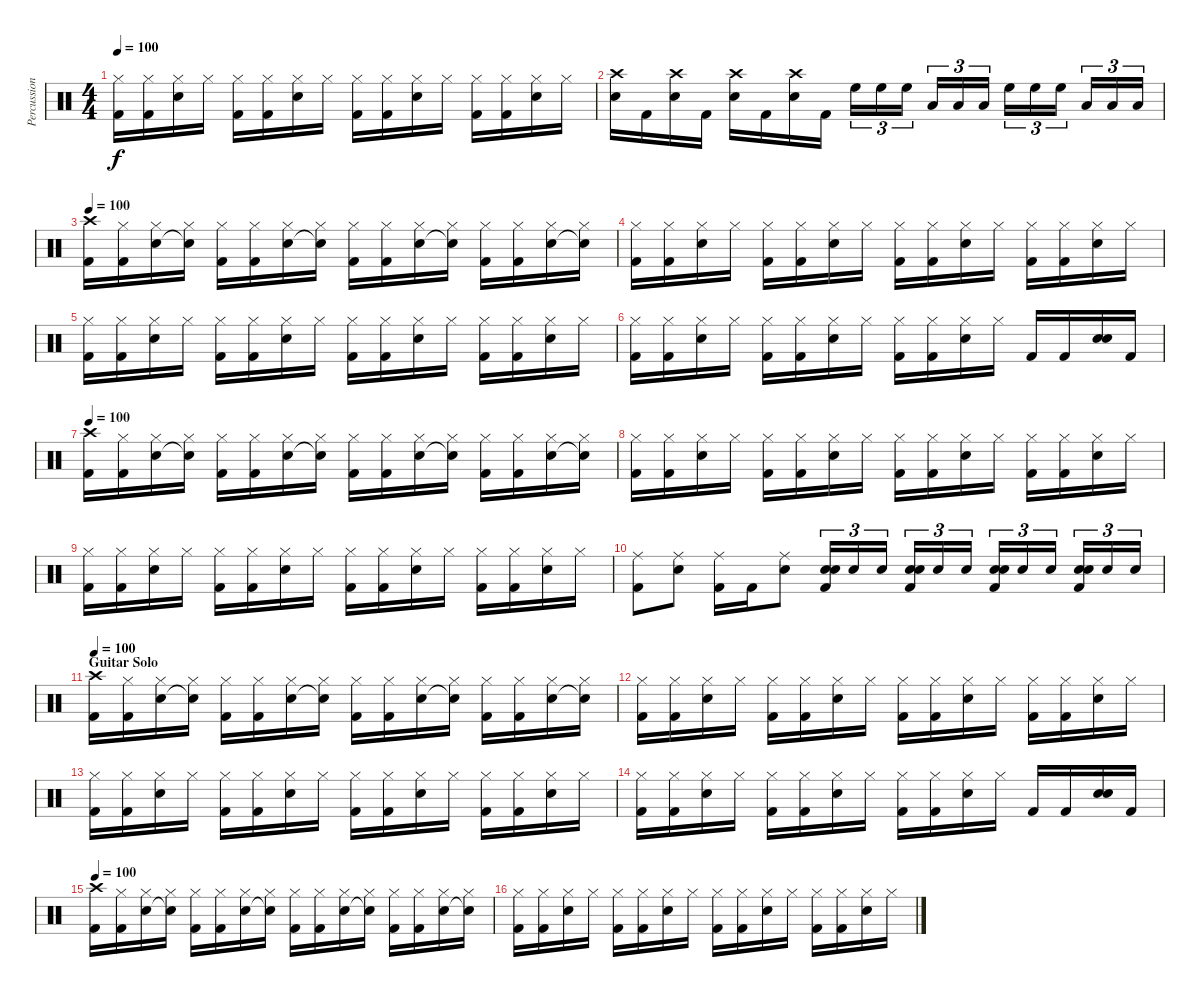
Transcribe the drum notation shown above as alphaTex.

\track ("Percussion" "Percussion") {instrument percussion}
\staff {score}
\articulation defaults
\ts (4 4)
\tempo 100
\clef neutral
\ks c
("Hi-Hat (closed)" "Kick (hit) 2").16{dy f} ("Hi-Hat (closed)" "Kick (hit) 2").16 ("Hi-Hat (closed)" "Snare (hit) 2").16 "Hi-Hat (closed)".16 ("Hi-Hat (closed)" "Kick (hit) 2").16 ("Hi-Hat (closed)" "Kick (hit) 2").16 ("Hi-Hat (closed)" "Snare (hit) 2").16 "Hi-Hat (closed)".16 ("Hi-Hat (closed)" "Kick (hit) 2").16 ("Hi-Hat (closed)" "Kick (hit) 2").16 ("Hi-Hat (closed)" "Snare (hit) 2").16 "Hi-Hat (closed)".16 ("Hi-Hat (closed)" "Kick (hit) 2").16 ("Hi-Hat (closed)" "Kick (hit) 2").16 ("Hi-Hat (closed)" "Snare (hit) 2").16 "Hi-Hat (closed)".16 |
("Crash high (hit)" "Snare (hit) 2").16 "Kick (hit) 2".16 ("Crash high (hit)" "Snare (hit) 2").16 "Kick (hit) 2".16 ("Crash high (hit)" "Snare (hit) 2").16 "Kick (hit) 2".16 ("Crash high (hit)" "Snare (hit) 2").16 "Kick (hit) 2".16 "High Floor Tom (hit)".16{tu (3 2)} "High Floor Tom (hit)".16{tu (3 2)} "High Floor Tom (hit)".16{tu (3 2)} "Low Floor Tom (hit)".16{tu (3 2)} "Low Floor Tom (hit)".16{tu (3 2)} "Low Floor Tom (hit)".16{tu (3 2)} "High Floor Tom (hit)".16{tu (3 2)} "High Floor Tom (hit)".16{tu (3 2)} "High Floor Tom (hit)".16{tu (3 2)} "Low Floor Tom (hit)".16{tu (3 2)} "Low Floor Tom (hit)".16{tu (3 2)} "Low Floor Tom (hit)".16{tu (3 2)} |
\tempo 100
("Crash high (hit)" "Kick (hit) 2").16 ("Hi-Hat (closed)" "Kick (hit) 2").16 ("Hi-Hat (closed)" "Snare (hit) 2").16 ("Hi-Hat (closed)" "Snare (hit)"{t}).16 ("Hi-Hat (closed)" "Kick (hit) 2").16 ("Hi-Hat (closed)" "Kick (hit) 2").16 ("Hi-Hat (closed)" "Snare (hit) 2").16 ("Hi-Hat (closed)" "Snare (hit)"{t}).16 ("Hi-Hat (closed)" "Kick (hit) 2").16 ("Hi-Hat (closed)" "Kick (hit) 2").16 ("Hi-Hat (closed)" "Snare (hit) 2").16 ("Hi-Hat (closed)" "Snare (hit)"{t}).16 ("Hi-Hat (closed)" "Kick (hit) 2").16 ("Hi-Hat (closed)" "Kick (hit) 2").16 ("Hi-Hat (closed)" "Snare (hit) 2").16 ("Hi-Hat (closed)" "Snare (hit)"{t}).16 |
("Hi-Hat (closed)" "Kick (hit) 2").16 ("Hi-Hat (closed)" "Kick (hit) 2").16 ("Hi-Hat (closed)" "Snare (hit) 2").16 "Hi-Hat (closed)".16 ("Hi-Hat (closed)" "Kick (hit) 2").16 ("Hi-Hat (closed)" "Kick (hit) 2").16 ("Hi-Hat (closed)" "Snare (hit) 2").16 "Hi-Hat (closed)".16 ("Hi-Hat (closed)" "Kick (hit) 2").16 ("Hi-Hat (closed)" "Kick (hit) 2").16 ("Hi-Hat (closed)" "Snare (hit) 2").16 "Hi-Hat (closed)".16 ("Hi-Hat (closed)" "Kick (hit) 2").16 ("Hi-Hat (closed)" "Kick (hit) 2").16 ("Hi-Hat (closed)" "Snare (hit) 2").16 "Hi-Hat (closed)".16 |
("Hi-Hat (closed)" "Kick (hit) 2").16 ("Hi-Hat (closed)" "Kick (hit) 2").16 ("Hi-Hat (closed)" "Snare (hit) 2").16 "Hi-Hat (closed)".16 ("Hi-Hat (closed)" "Kick (hit) 2").16 ("Hi-Hat (closed)" "Kick (hit) 2").16 ("Hi-Hat (closed)" "Snare (hit) 2").16 "Hi-Hat (closed)".16 ("Hi-Hat (closed)" "Kick (hit) 2").16 ("Hi-Hat (closed)" "Kick (hit) 2").16 ("Hi-Hat (closed)" "Snare (hit) 2").16 "Hi-Hat (closed)".16 ("Hi-Hat (closed)" "Kick (hit) 2").16 ("Hi-Hat (closed)" "Kick (hit) 2").16 ("Hi-Hat (closed)" "Snare (hit) 2").16 "Hi-Hat (closed)".16 |
("Hi-Hat (closed)" "Kick (hit) 2").16 ("Hi-Hat (closed)" "Kick (hit) 2").16 ("Hi-Hat (closed)" "Snare (hit) 2").16 "Hi-Hat (closed)".16 ("Hi-Hat (closed)" "Kick (hit) 2").16 ("Hi-Hat (closed)" "Kick (hit) 2").16 ("Hi-Hat (closed)" "Snare (hit) 2").16 "Hi-Hat (closed)".16 ("Hi-Hat (closed)" "Kick (hit) 2").16 ("Hi-Hat (closed)" "Kick (hit) 2").16 ("Hi-Hat (closed)" "Snare (hit) 2").16 "Hi-Hat (closed)".16 "Kick (hit) 2".16 "Kick (hit) 2".16 ("Snare (hit) 2" "Snare (hit) 2").16 "Kick (hit) 2".16 |
\tempo 100
("Crash high (hit)" "Kick (hit) 2").16 ("Hi-Hat (closed)" "Kick (hit) 2").16 ("Hi-Hat (closed)" "Snare (hit) 2").16 ("Hi-Hat (closed)" "Snare (hit)"{t}).16 ("Hi-Hat (closed)" "Kick (hit) 2").16 ("Hi-Hat (closed)" "Kick (hit) 2").16 ("Hi-Hat (closed)" "Snare (hit) 2").16 ("Hi-Hat (closed)" "Snare (hit)"{t}).16 ("Hi-Hat (closed)" "Kick (hit) 2").16 ("Hi-Hat (closed)" "Kick (hit) 2").16 ("Hi-Hat (closed)" "Snare (hit) 2").16 ("Hi-Hat (closed)" "Snare (hit)"{t}).16 ("Hi-Hat (closed)" "Kick (hit) 2").16 ("Hi-Hat (closed)" "Kick (hit) 2").16 ("Hi-Hat (closed)" "Snare (hit) 2").16 ("Hi-Hat (closed)" "Snare (hit)"{t}).16 |
("Hi-Hat (closed)" "Kick (hit) 2").16 ("Hi-Hat (closed)" "Kick (hit) 2").16 ("Hi-Hat (closed)" "Snare (hit) 2").16 "Hi-Hat (closed)".16 ("Hi-Hat (closed)" "Kick (hit) 2").16 ("Hi-Hat (closed)" "Kick (hit) 2").16 ("Hi-Hat (closed)" "Snare (hit) 2").16 "Hi-Hat (closed)".16 ("Hi-Hat (closed)" "Kick (hit) 2").16 ("Hi-Hat (closed)" "Kick (hit) 2").16 ("Hi-Hat (closed)" "Snare (hit) 2").16 "Hi-Hat (closed)".16 ("Hi-Hat (closed)" "Kick (hit) 2").16 ("Hi-Hat (closed)" "Kick (hit) 2").16 ("Hi-Hat (closed)" "Snare (hit) 2").16 "Hi-Hat (closed)".16 |
("Hi-Hat (closed)" "Kick (hit) 2").16 ("Hi-Hat (closed)" "Kick (hit) 2").16 ("Hi-Hat (closed)" "Snare (hit) 2").16 "Hi-Hat (closed)".16 ("Hi-Hat (closed)" "Kick (hit) 2").16 ("Hi-Hat (closed)" "Kick (hit) 2").16 ("Hi-Hat (closed)" "Snare (hit) 2").16 "Hi-Hat (closed)".16 ("Hi-Hat (closed)" "Kick (hit) 2").16 ("Hi-Hat (closed)" "Kick (hit) 2").16 ("Hi-Hat (closed)" "Snare (hit) 2").16 "Hi-Hat (closed)".16 ("Hi-Hat (closed)" "Kick (hit) 2").16 ("Hi-Hat (closed)" "Kick (hit) 2").16 ("Hi-Hat (closed)" "Snare (hit) 2").16 "Hi-Hat (closed)".16 |
("Ride (middle)" "Kick (hit) 2").8 ("Ride (middle)" "Snare (hit) 2").8 ("Ride (middle)" "Kick (hit) 2").16 "Kick (hit) 2".16 ("Ride (middle)" "Snare (hit) 2").8 ("Snare (hit) 2" "Snare (hit) 2" "Kick (hit) 2").16{tu (3 2)} "Snare (hit) 2".16{tu (3 2)} "Snare (hit) 2".16{tu (3 2)} ("Snare (hit) 2" "Snare (hit) 2" "Kick (hit) 2").16{tu (3 2)} "Snare (hit) 2".16{tu (3 2)} "Snare (hit) 2".16{tu (3 2)} ("Snare (hit) 2" "Snare (hit) 2" "Kick (hit) 2").16{tu (3 2)} "Snare (hit) 2".16{tu (3 2)} "Snare (hit) 2".16{tu (3 2)} ("Snare (hit) 2" "Snare (hit) 2" "Kick (hit) 2").16{tu (3 2)} "Snare (hit) 2".16{tu (3 2)} "Snare (hit) 2".16{tu (3 2)} |
\section ("" "Guitar Solo")
\tempo 100
("Crash high (hit)" "Kick (hit) 2").16 ("Hi-Hat (closed)" "Kick (hit) 2").16 ("Hi-Hat (closed)" "Snare (hit) 2").16 ("Hi-Hat (closed)" "Snare (hit)"{t}).16 ("Hi-Hat (closed)" "Kick (hit) 2").16 ("Hi-Hat (closed)" "Kick (hit) 2").16 ("Hi-Hat (closed)" "Snare (hit) 2").16 ("Hi-Hat (closed)" "Snare (hit)"{t}).16 ("Hi-Hat (closed)" "Kick (hit) 2").16 ("Hi-Hat (closed)" "Kick (hit) 2").16 ("Hi-Hat (closed)" "Snare (hit) 2").16 ("Hi-Hat (closed)" "Snare (hit)"{t}).16 ("Hi-Hat (closed)" "Kick (hit) 2").16 ("Hi-Hat (closed)" "Kick (hit) 2").16 ("Hi-Hat (closed)" "Snare (hit) 2").16 ("Hi-Hat (closed)" "Snare (hit)"{t}).16 |
("Hi-Hat (closed)" "Kick (hit) 2").16 ("Hi-Hat (closed)" "Kick (hit) 2").16 ("Hi-Hat (closed)" "Snare (hit) 2").16 "Hi-Hat (closed)".16 ("Hi-Hat (closed)" "Kick (hit) 2").16 ("Hi-Hat (closed)" "Kick (hit) 2").16 ("Hi-Hat (closed)" "Snare (hit) 2").16 "Hi-Hat (closed)".16 ("Hi-Hat (closed)" "Kick (hit) 2").16 ("Hi-Hat (closed)" "Kick (hit) 2").16 ("Hi-Hat (closed)" "Snare (hit) 2").16 "Hi-Hat (closed)".16 ("Hi-Hat (closed)" "Kick (hit) 2").16 ("Hi-Hat (closed)" "Kick (hit) 2").16 ("Hi-Hat (closed)" "Snare (hit) 2").16 "Hi-Hat (closed)".16 |
("Hi-Hat (closed)" "Kick (hit) 2").16 ("Hi-Hat (closed)" "Kick (hit) 2").16 ("Hi-Hat (closed)" "Snare (hit) 2").16 "Hi-Hat (closed)".16 ("Hi-Hat (closed)" "Kick (hit) 2").16 ("Hi-Hat (closed)" "Kick (hit) 2").16 ("Hi-Hat (closed)" "Snare (hit) 2").16 "Hi-Hat (closed)".16 ("Hi-Hat (closed)" "Kick (hit) 2").16 ("Hi-Hat (closed)" "Kick (hit) 2").16 ("Hi-Hat (closed)" "Snare (hit) 2").16 "Hi-Hat (closed)".16 ("Hi-Hat (closed)" "Kick (hit) 2").16 ("Hi-Hat (closed)" "Kick (hit) 2").16 ("Hi-Hat (closed)" "Snare (hit) 2").16 "Hi-Hat (closed)".16 |
("Hi-Hat (closed)" "Kick (hit) 2").16 ("Hi-Hat (closed)" "Kick (hit) 2").16 ("Hi-Hat (closed)" "Snare (hit) 2").16 "Hi-Hat (closed)".16 ("Hi-Hat (closed)" "Kick (hit) 2").16 ("Hi-Hat (closed)" "Kick (hit) 2").16 ("Hi-Hat (closed)" "Snare (hit) 2").16 "Hi-Hat (closed)".16 ("Hi-Hat (closed)" "Kick (hit) 2").16 ("Hi-Hat (closed)" "Kick (hit) 2").16 ("Hi-Hat (closed)" "Snare (hit) 2").16 "Hi-Hat (closed)".16 "Kick (hit) 2".16 "Kick (hit) 2".16 ("Snare (hit) 2" "Snare (hit) 2").16 "Kick (hit) 2".16 |
\tempo 100
("Crash high (hit)" "Kick (hit) 2").16 ("Hi-Hat (closed)" "Kick (hit) 2").16 ("Hi-Hat (closed)" "Snare (hit) 2").16 ("Hi-Hat (closed)" "Snare (hit)"{t}).16 ("Hi-Hat (closed)" "Kick (hit) 2").16 ("Hi-Hat (closed)" "Kick (hit) 2").16 ("Hi-Hat (closed)" "Snare (hit) 2").16 ("Hi-Hat (closed)" "Snare (hit)"{t}).16 ("Hi-Hat (closed)" "Kick (hit) 2").16 ("Hi-Hat (closed)" "Kick (hit) 2").16 ("Hi-Hat (closed)" "Snare (hit) 2").16 ("Hi-Hat (closed)" "Snare (hit)"{t}).16 ("Hi-Hat (closed)" "Kick (hit) 2").16 ("Hi-Hat (closed)" "Kick (hit) 2").16 ("Hi-Hat (closed)" "Snare (hit) 2").16 ("Hi-Hat (closed)" "Snare (hit)"{t}).16 |
("Hi-Hat (closed)" "Kick (hit) 2").16 ("Hi-Hat (closed)" "Kick (hit) 2").16 ("Hi-Hat (closed)" "Snare (hit) 2").16 "Hi-Hat (closed)".16 ("Hi-Hat (closed)" "Kick (hit) 2").16 ("Hi-Hat (closed)" "Kick (hit) 2").16 ("Hi-Hat (closed)" "Snare (hit) 2").16 "Hi-Hat (closed)".16 ("Hi-Hat (closed)" "Kick (hit) 2").16 ("Hi-Hat (closed)" "Kick (hit) 2").16 ("Hi-Hat (closed)" "Snare (hit) 2").16 "Hi-Hat (closed)".16 ("Hi-Hat (closed)" "Kick (hit) 2").16 ("Hi-Hat (closed)" "Kick (hit) 2").16 ("Hi-Hat (closed)" "Snare (hit) 2").16 "Hi-Hat (closed)".16
